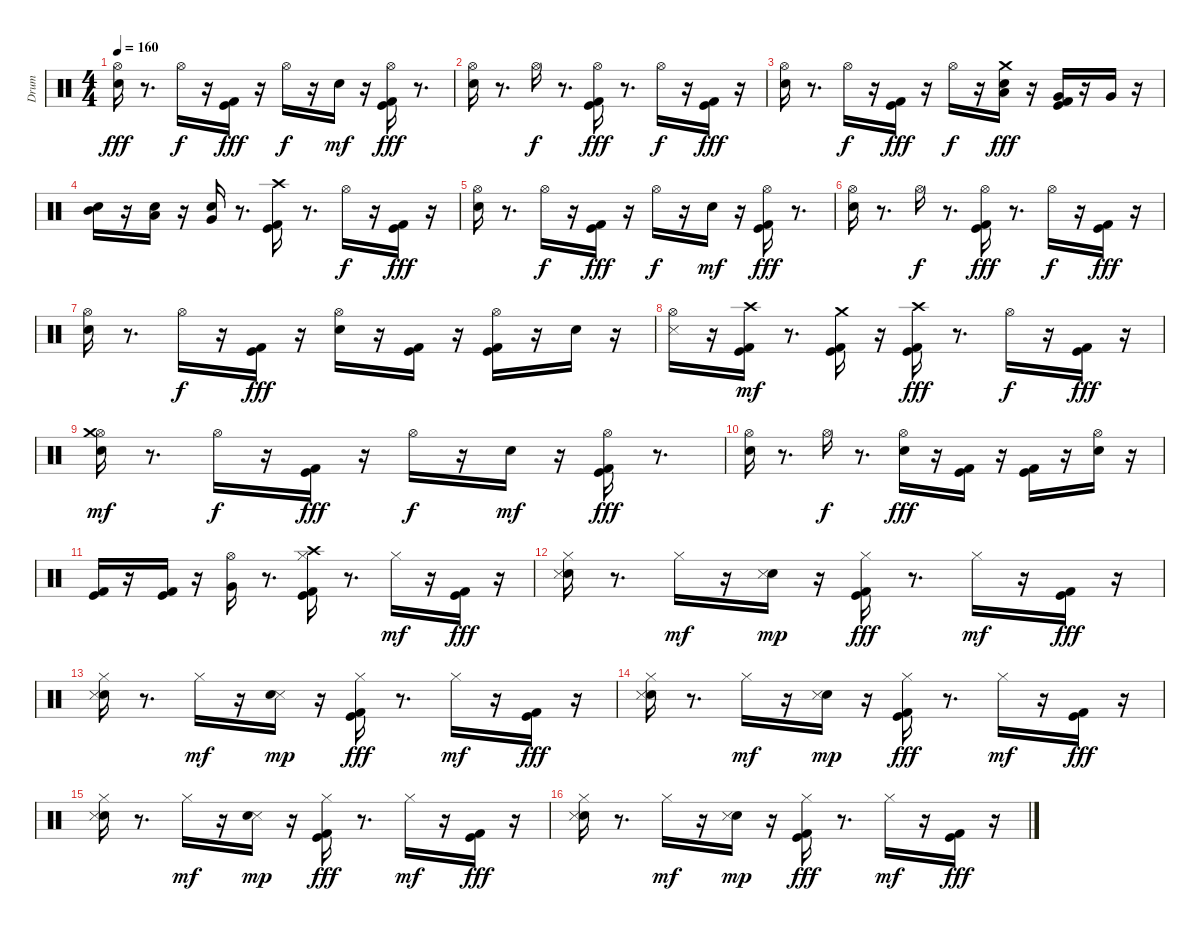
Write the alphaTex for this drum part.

\track ("Drum" "Drum") {instrument percussion}
\staff {score}
\articulation defaults
\ts (4 4)
\tempo 160
\clef neutral
\ks c
("Hi-Hat (open)" "Electric Snare (hit)").16{dy fff} r.8{d} "Hi-Hat (open)".16{dy f} r.16 ("Kick (hit)" "Kick (hit) 2").16{dy fff} r.16 "Hi-Hat (open)".16{dy f} r.16 "Electric Snare (hit)".16{dy mf} r.16 ("Kick (hit)" "Kick (hit) 2" "Hi-Hat (open)").16{dy fff} r.8{d} |
("Hi-Hat (open)" "Electric Snare (hit)").16 r.8{d} "Hi-Hat (open)".16{dy f} r.8{d} ("Kick (hit)" "Kick (hit) 2" "Hi-Hat (open)").16{dy fff} r.8{d} "Hi-Hat (open)".16{dy f} r.16 ("Kick (hit)" "Kick (hit) 2").16{dy fff} r.16 |
("Hi-Hat (open)" "Electric Snare (hit)").16 r.8{d} "Hi-Hat (open)".16{dy f} r.16 ("Kick (hit)" "Kick (hit) 2").16{dy fff} r.16 "Hi-Hat (open)".16{dy f} r.16 ("Electric Snare (hit)" "Crash medium (hit)" "Low Tom (hit)").16{dy fff} r.16 ("Kick (hit)" "Kick (hit) 2" "Very Low Tom (hit)").16 r.16 "Very Low Tom (hit)".16 r.16 |
("Electric Snare (hit)" "Mid Tom (hit)").16 r.16 ("Electric Snare (hit)" "Low Tom (hit)").16 r.16 ("Electric Snare (hit)" "Very Low Tom (hit)").16 r.8{d} ("Crash high (hit)" "Kick (hit)" "Kick (hit) 2").16 r.8{d} "Hi-Hat (open)".16{dy f} r.16 ("Kick (hit)" "Kick (hit) 2").16{dy fff} r.16 |
("Hi-Hat (open)" "Electric Snare (hit)").16 r.8{d} "Hi-Hat (open)".16{dy f} r.16 ("Kick (hit)" "Kick (hit) 2").16{dy fff} r.16 "Hi-Hat (open)".16{dy f} r.16 "Electric Snare (hit)".16{dy mf} r.16 ("Kick (hit)" "Kick (hit) 2" "Hi-Hat (open)").16{dy fff} r.8{d} |
("Hi-Hat (open)" "Electric Snare (hit)").16 r.8{d} "Hi-Hat (open)".16{dy f} r.8{d} ("Kick (hit)" "Kick (hit) 2" "Hi-Hat (open)").16{dy fff} r.8{d} "Hi-Hat (open)".16{dy f} r.16 ("Kick (hit)" "Kick (hit) 2").16{dy fff} r.16 |
("Hi-Hat (open)" "Electric Snare (hit)").16 r.8{d} "Hi-Hat (open)".16{dy f} r.16 ("Kick (hit)" "Kick (hit) 2").16{dy fff} r.16 ("Hi-Hat (open)" "Electric Snare (hit)").16 r.16 ("Kick (hit) 2" "Kick (hit)").16 r.16 ("Kick (hit)" "Kick (hit) 2" "Hi-Hat (open)").16 r.16 "Electric Snare (hit)".16 r.16 |
("Hi-Hat (open)" "Snare (side stick) 3").16 r.16 ("Kick (hit)" "Kick (hit) 2" "Crash high (hit)").16{dy mf} r.8{d} ("Kick (hit)" "Kick (hit) 2" "Crash medium (hit)").16 r.16 ("Crash high (hit)" "Kick (hit)" "Kick (hit) 2").16{dy fff} r.8{d} "Hi-Hat (open)".16{dy f} r.16 ("Kick (hit)" "Kick (hit) 2").16{dy fff} r.16 |
("Hi-Hat (open)" "Electric Snare (hit)" "Crash medium (hit)").16{dy mf} r.8{d} "Hi-Hat (open)".16{dy f} r.16 ("Kick (hit)" "Kick (hit) 2").16{dy fff} r.16 "Hi-Hat (open)".16{dy f} r.16 "Electric Snare (hit)".16{dy mf} r.16 ("Kick (hit)" "Kick (hit) 2" "Hi-Hat (open)").16{dy fff} r.8{d} |
("Hi-Hat (open)" "Electric Snare (hit)").16 r.8{d} "Hi-Hat (open)".16{dy f} r.8{d} ("Electric Snare (hit)" "Hi-Hat (open)").16{dy fff} r.16 ("Kick (hit)" "Kick (hit) 2").16 r.16 ("Kick (hit)" "Kick (hit) 2").16 r.16 ("Electric Snare (hit)" "Hi-Hat (open)").16 r.16 |
("Kick (hit)" "Kick (hit) 2").16 r.16 ("Kick (hit)" "Kick (hit) 2").16 r.16 ("Very Low Tom (hit)" "Hi-Hat (open)").16 r.8{d} ("Crash high (hit)" "Hi-Hat (closed)" "Kick (hit)" "Kick (hit) 2").16 r.8{d} "Hi-Hat (closed)".16{dy mf} r.16 ("Kick (hit)" "Kick (hit) 2").16{dy fff} r.16 |
("Hi-Hat (closed)" "Hand Clap (hit)" "Snare (side stick) 3").16 r.8{d} "Hi-Hat (closed)".16{dy mf} r.16 ("Hand Clap (hit)" "Snare (side stick) 3").16{dy mp} r.16 ("Hi-Hat (closed)" "Kick (hit)" "Kick (hit) 2").16{dy fff} r.8{d} "Hi-Hat (closed)".16{dy mf} r.16 ("Kick (hit)" "Kick (hit) 2").16{dy fff} r.16 |
("Hi-Hat (closed)" "Hand Clap (hit)" "Snare (side stick) 3").16 r.8{d} "Hi-Hat (closed)".16{dy mf} r.16 ("Snare (side stick) 3" "Hand Clap (hit)").16{dy mp} r.16 ("Hi-Hat (closed)" "Kick (hit)" "Kick (hit) 2").16{dy fff} r.8{d} "Hi-Hat (closed)".16{dy mf} r.16 ("Kick (hit)" "Kick (hit) 2").16{dy fff} r.16 |
("Hi-Hat (closed)" "Hand Clap (hit)" "Snare (side stick) 3").16 r.8{d} "Hi-Hat (closed)".16{dy mf} r.16 ("Hand Clap (hit)" "Snare (side stick) 3").16{dy mp} r.16 ("Hi-Hat (closed)" "Kick (hit)" "Kick (hit) 2").16{dy fff} r.8{d} "Hi-Hat (closed)".16{dy mf} r.16 ("Kick (hit)" "Kick (hit) 2").16{dy fff} r.16 |
("Hi-Hat (closed)" "Hand Clap (hit)" "Snare (side stick) 3").16 r.8{d} "Hi-Hat (closed)".16{dy mf} r.16 ("Snare (side stick) 3" "Hand Clap (hit)").16{dy mp} r.16 ("Hi-Hat (closed)" "Kick (hit)" "Kick (hit) 2").16{dy fff} r.8{d} "Hi-Hat (closed)".16{dy mf} r.16 ("Kick (hit)" "Kick (hit) 2").16{dy fff} r.16 |
("Hi-Hat (closed)" "Hand Clap (hit)" "Snare (side stick) 3").16 r.8{d} "Hi-Hat (closed)".16{dy mf} r.16 ("Hand Clap (hit)" "Snare (side stick) 3").16{dy mp} r.16 ("Hi-Hat (closed)" "Kick (hit)" "Kick (hit) 2").16{dy fff} r.8{d} "Hi-Hat (closed)".16{dy mf} r.16 ("Kick (hit)" "Kick (hit) 2").16{dy fff} r.16
